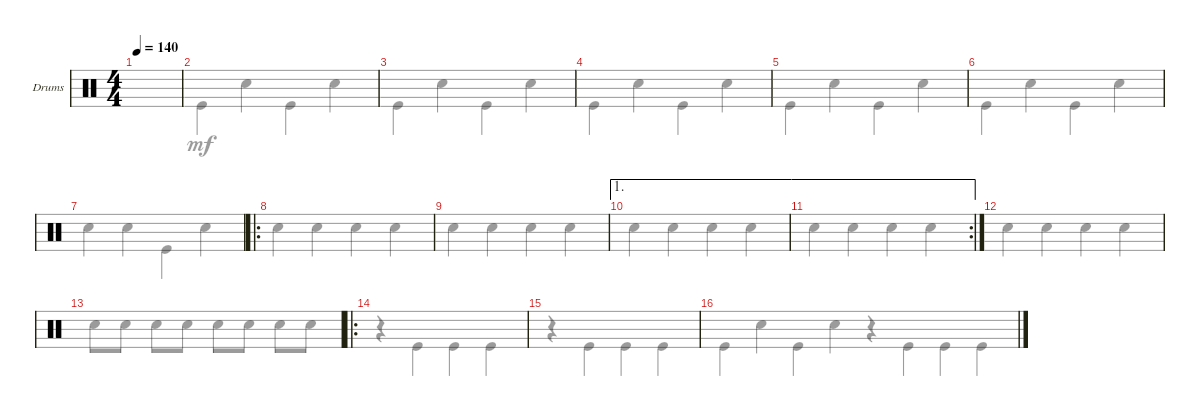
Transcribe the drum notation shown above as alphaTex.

\defaultSystemsLayout 4
\bracketExtendMode groupsimilarinstruments
\firstSystemTrackNameOrientation horizontal
\otherSystemsTrackNameOrientation horizontal
\track ("Drumkit" "Drums") {instrument percussion}
\staff {score}
\articulation defaults
\voice
\ts (4 4)
\tempo 140
\clef neutral
\scale
0.5
\ks c
|
\scale
0.5 |
\scale
0.5 |
\scale
0.5 |
\scale
0.5 |
\scale
0.5 |
\scale
0.452381 |
\ro
\scale
0.547619 |
\scale
0.5 |
\ae 1
\scale
0.5 |
\ae 1
\rc 2
\scale
0.525 |
\scale
0.475 |
\scale
0.452381 |
\ro
\scale
0.547619 |
\scale
0.5 |
\scale
0.5
\voice
\clef neutral
\ottava regular
\simile none
\scale
0.5
\ks c "Kick (hit)".4{dy mf} "Snare (hit) 2".4 "Kick (hit)".4 "Snare (hit) 2".4
|
\scale
0.5 "Kick (hit)".4 "Snare (hit) 2".4 "Kick (hit)".4 "Snare (hit) 2".4 |
\scale
0.5 "Kick (hit)".4 "Snare (hit) 2".4 "Kick (hit)".4 "Snare (hit) 2".4 |
\scale
0.5 "Kick (hit)".4 "Snare (hit) 2".4 "Kick (hit)".4 "Snare (hit) 2".4 |
\scale
0.5 "Kick (hit)".4 "Snare (hit) 2".4 "Kick (hit)".4 "Snare (hit) 2".4 |
\scale
0.5 "Kick (hit)".4 "Snare (hit) 2".4 "Kick (hit)".4 "Snare (hit) 2".4 |
\scale
0.452381 "Snare (hit) 2".4 "Snare (hit) 2".4 "Kick (hit)".4 "Snare (hit) 2".4 |
\scale
0.547619 "Snare (hit) 2".4 "Snare (hit) 2".4 "Snare (hit) 2".4 "Snare (hit) 2".4 |
\scale
0.5 "Snare (hit) 2".4 "Snare (hit) 2".4 "Snare (hit) 2".4 "Snare (hit) 2".4 |
\scale
0.5 "Snare (hit) 2".4 "Snare (hit) 2".4 "Snare (hit) 2".4 "Snare (hit) 2".4 |
\scale
0.525 "Snare (hit) 2".4 "Snare (hit) 2".4 "Snare (hit) 2".4 "Snare (hit) 2".4 |
\scale
0.475 "Snare (hit) 2".4 "Snare (hit) 2".4 "Snare (hit) 2".4 "Snare (hit) 2".4 |
\scale
0.452381 "Snare (hit) 2".8 "Snare (hit) 2".8 "Snare (hit) 2".8 "Snare (hit) 2".8 "Snare (hit) 2".8 "Snare (hit) 2".8 "Snare (hit) 2".8 "Snare (hit) 2".8 |
\scale
0.547619 r.4 "Kick (hit)".4 "Kick (hit)".4 "Kick (hit)".4 |
\scale
0.5 r.4 "Kick (hit)".4 "Kick (hit)".4 "Kick (hit)".4 |
\scale
0.5 r.4 "Kick (hit)".4 "Kick (hit)".4 "Kick (hit)".4
